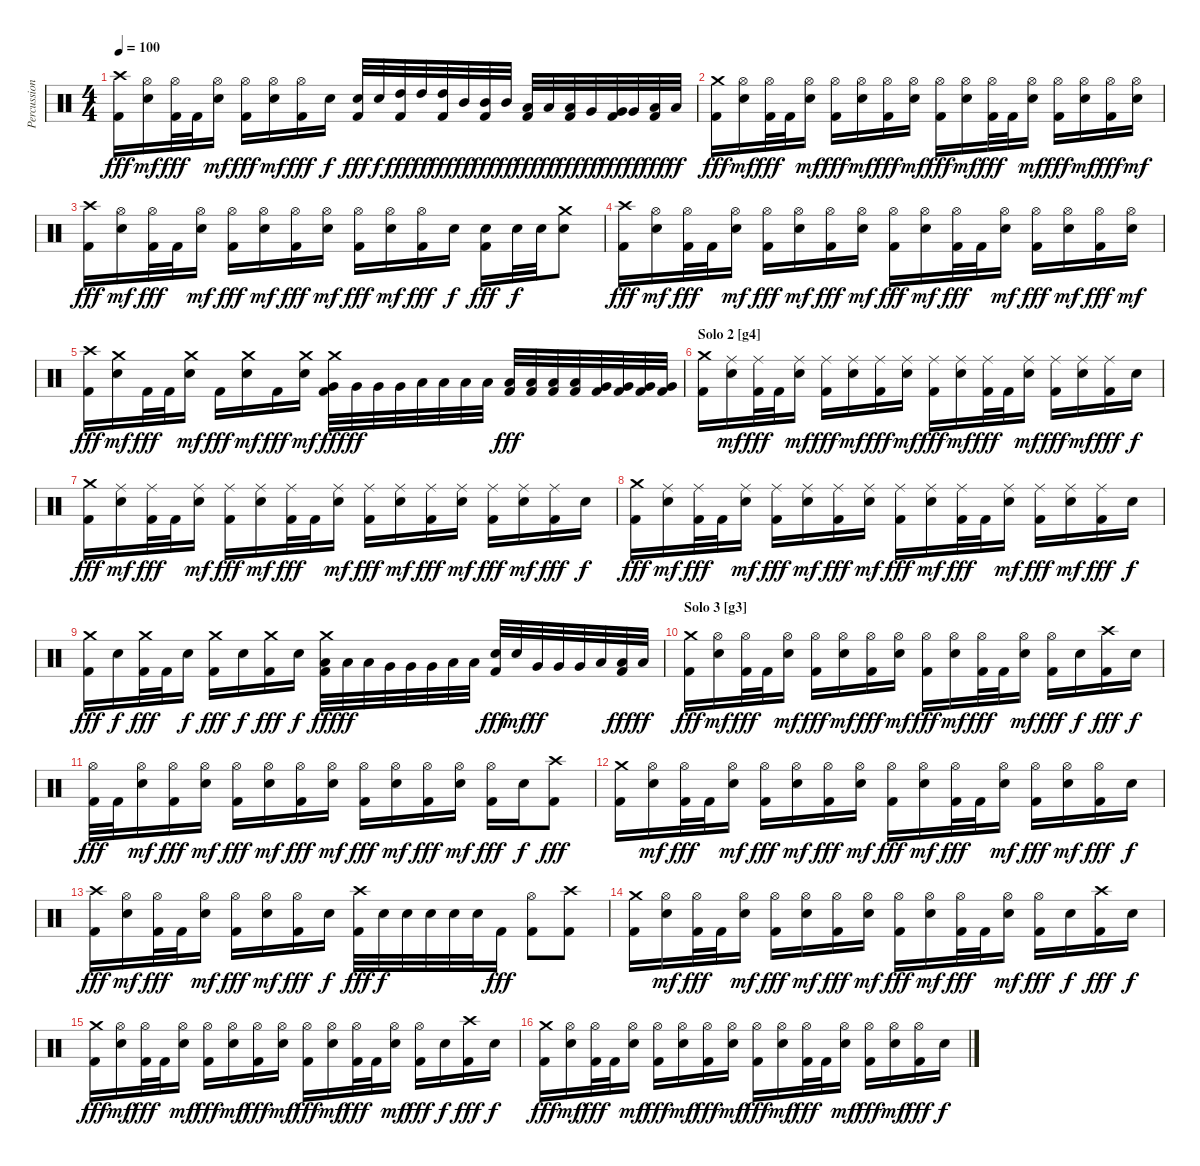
\track ("Percussion" "Percussion") {instrument percussion}
\staff {score}
\articulation defaults
\ts (4 4)
\tempo 100
\clef neutral
\ks c
("Crash high (hit)" "Kick (hit) 2").16{dy fff} ("Hi-Hat (open)" "Snare (hit) 2").16{dy mf} ("Hi-Hat (open)" "Kick (hit) 2").32{dy fff} "Kick (hit) 2".32 ("Hi-Hat (open)" "Snare (hit) 2").16{dy mf} ("Hi-Hat (open)" "Kick (hit) 2").16{dy fff} ("Hi-Hat (open)" "Snare (hit) 2").16{dy mf} ("Hi-Hat (open)" "Kick (hit) 2").16{dy fff} "Snare (hit) 2".16{dy f} ("Snare (hit) 2" "Kick (hit) 2").32{dy fff} "Snare (hit) 2".32{dy f} ("High Tom (hit)" "Kick (hit) 2").32{dy fff} "High Tom (hit)".32{dy ff} ("High Tom (hit)" "Kick (hit) 2").32{dy fff} "Mid Tom (hit)".32{dy ff} ("Mid Tom (hit)" "Kick (hit) 2").32{dy fff} "Mid Tom (hit)".32{dy ff} ("Low Tom (hit)" "Kick (hit) 2").32{dy fff} "Low Tom (hit)".32{dy ff} ("Low Tom (hit)" "Kick (hit) 2").32{dy fff} "Very Low Tom (hit)".32{dy ff} ("Very Low Tom (hit)" "Kick (hit) 2").32{dy fff} "Very Low Tom (hit)".32{dy ff} ("Low Floor Tom (hit)" "Kick (hit) 2").32{dy fff} "Low Floor Tom (hit)".32{dy ff} |
("Crash medium (hit)" "Kick (hit) 2").16{dy fff} ("Hi-Hat (open)" "Snare (hit) 2").16{dy mf} ("Hi-Hat (open)" "Kick (hit) 2").32{dy fff} "Kick (hit) 2".32 ("Hi-Hat (open)" "Snare (hit) 2").16{dy mf} ("Hi-Hat (open)" "Kick (hit) 2").16{dy fff} ("Hi-Hat (open)" "Snare (hit) 2").16{dy mf} ("Hi-Hat (open)" "Kick (hit) 2").16{dy fff} ("Hi-Hat (open)" "Snare (hit) 2").16{dy mf} ("Hi-Hat (open)" "Kick (hit) 2").16{dy fff} ("Hi-Hat (open)" "Snare (hit) 2").16{dy mf} ("Hi-Hat (open)" "Kick (hit) 2").32{dy fff} "Kick (hit) 2".32 ("Hi-Hat (open)" "Snare (hit) 2").16{dy mf} ("Hi-Hat (open)" "Kick (hit) 2").16{dy fff} ("Hi-Hat (open)" "Snare (hit) 2").16{dy mf} ("Hi-Hat (open)" "Kick (hit) 2").16{dy fff} ("Hi-Hat (open)" "Snare (hit) 2").16{dy mf} |
("Crash high (hit)" "Kick (hit) 2").16{dy fff} ("Hi-Hat (open)" "Snare (hit) 2").16{dy mf} ("Hi-Hat (open)" "Kick (hit) 2").32{dy fff} "Kick (hit) 2".32 ("Hi-Hat (open)" "Snare (hit) 2").16{dy mf} ("Hi-Hat (open)" "Kick (hit) 2").16{dy fff} ("Hi-Hat (open)" "Snare (hit) 2").16{dy mf} ("Hi-Hat (open)" "Kick (hit) 2").16{dy fff} ("Hi-Hat (open)" "Snare (hit) 2").16{dy mf} ("Hi-Hat (open)" "Kick (hit) 2").16{dy fff} ("Hi-Hat (open)" "Snare (hit) 2").16{dy mf} ("Hi-Hat (open)" "Kick (hit) 2").16{dy fff} "Snare (hit) 2".16{dy f} ("Snare (hit) 2" "Kick (hit) 2").16{dy fff} "Snare (hit) 2".32{dy f} "Snare (hit) 2".32 ("Crash medium (hit)" "Snare (hit) 2").8 |
("Crash high (hit)" "Kick (hit) 2").16{dy fff} ("Hi-Hat (open)" "Snare (hit) 2").16{dy mf} ("Hi-Hat (open)" "Kick (hit) 2").32{dy fff} "Kick (hit) 2".32 ("Hi-Hat (open)" "Snare (hit) 2").16{dy mf} ("Hi-Hat (open)" "Kick (hit) 2").16{dy fff} ("Hi-Hat (open)" "Snare (hit) 2").16{dy mf} ("Hi-Hat (open)" "Kick (hit) 2").16{dy fff} ("Hi-Hat (open)" "Snare (hit) 2").16{dy mf} ("Hi-Hat (open)" "Kick (hit) 2").16{dy fff} ("Hi-Hat (open)" "Snare (hit) 2").16{dy mf} ("Hi-Hat (open)" "Kick (hit) 2").32{dy fff} "Kick (hit) 2".32 ("Hi-Hat (open)" "Snare (hit) 2").16{dy mf} ("Hi-Hat (open)" "Kick (hit) 2").16{dy fff} ("Hi-Hat (open)" "Snare (hit) 2").16{dy mf} ("Hi-Hat (open)" "Kick (hit) 2").16{dy fff} ("Hi-Hat (open)" "Snare (hit) 2").16{dy mf} |
("Crash high (hit)" "Kick (hit) 2").16{dy fff} ("Crash medium (hit)" "Snare (hit) 2").16{dy mf} "Kick (hit) 2".32{dy fff} "Kick (hit) 2".32 ("Crash medium (hit)" "Snare (hit) 2").16{dy mf} "Kick (hit) 2".16{dy fff} ("Crash medium (hit)" "Snare (hit) 2").16{dy mf} "Kick (hit) 2".16{dy fff} ("Crash medium (hit)" "Snare (hit) 2").16{dy mf} ("Crash medium (hit)" "Very Low Tom (hit)" "Kick (hit) 2").32{dy fff} "Very Low Tom (hit)".32{dy ff} "Very Low Tom (hit)".32 "Very Low Tom (hit)".32 "Low Tom (hit)".32 "Low Tom (hit)".32 "Low Tom (hit)".32 "Low Tom (hit)".32 ("Low Floor Tom (hit)" "Kick (hit) 2").32{dy fff} ("Low Floor Tom (hit)" "Kick (hit) 2").32 ("Low Floor Tom (hit)" "Kick (hit) 2").32 ("Low Floor Tom (hit)" "Kick (hit) 2").32 ("Very Low Tom (hit)" "Kick (hit) 2").32 ("Very Low Tom (hit)" "Kick (hit) 2").32 ("Very Low Tom (hit)" "Kick (hit) 2").32 ("Very Low Tom (hit)" "Kick (hit) 2").32 |
\section ("" "Solo 2 [g4]")
("Crash medium (hit)" "Kick (hit) 2").16 ("Ride (middle)" "Snare (hit) 2").16{dy mf} ("Ride (middle)" "Kick (hit) 2").32{dy fff} "Kick (hit) 2".32 ("Ride (middle)" "Snare (hit) 2").16{dy mf} ("Ride (middle)" "Kick (hit) 2").16{dy fff} ("Ride (middle)" "Snare (hit) 2").16{dy mf} ("Ride (middle)" "Kick (hit) 2").16{dy fff} ("Ride (middle)" "Snare (hit) 2").16{dy mf} ("Ride (middle)" "Kick (hit) 2").16{dy fff} ("Ride (middle)" "Snare (hit) 2").16{dy mf} ("Ride (middle)" "Kick (hit) 2").32{dy fff} "Kick (hit) 2".32 ("Ride (middle)" "Snare (hit) 2").16{dy mf} ("Ride (middle)" "Kick (hit) 2").16{dy fff} ("Ride (middle)" "Snare (hit) 2").16{dy mf} ("Ride (middle)" "Kick (hit) 2").16{dy fff} "Snare (hit) 2".16{dy f} |
("Crash medium (hit)" "Kick (hit) 2").16{dy fff} ("Ride (middle)" "Snare (hit) 2").16{dy mf} ("Ride (middle)" "Kick (hit) 2").32{dy fff} "Kick (hit) 2".32 ("Ride (middle)" "Snare (hit) 2").16{dy mf} ("Ride (middle)" "Kick (hit) 2").16{dy fff} ("Ride (middle)" "Snare (hit) 2").16{dy mf} ("Ride (middle)" "Kick (hit) 2").32{dy fff} "Kick (hit) 2".32 ("Ride (middle)" "Snare (hit) 2").16{dy mf} ("Ride (middle)" "Kick (hit) 2").16{dy fff} ("Ride (middle)" "Snare (hit) 2").16{dy mf} ("Ride (middle)" "Kick (hit) 2").16{dy fff} ("Ride (middle)" "Snare (hit) 2").16{dy mf} ("Ride (middle)" "Kick (hit) 2").16{dy fff} ("Ride (middle)" "Snare (hit) 2").16{dy mf} ("Ride (middle)" "Kick (hit) 2").16{dy fff} "Snare (hit) 2".16{dy f} |
("Crash medium (hit)" "Kick (hit) 2").16{dy fff} ("Ride (middle)" "Snare (hit) 2").16{dy mf} ("Ride (middle)" "Kick (hit) 2").32{dy fff} "Kick (hit) 2".32 ("Ride (middle)" "Snare (hit) 2").16{dy mf} ("Ride (middle)" "Kick (hit) 2").16{dy fff} ("Ride (middle)" "Snare (hit) 2").16{dy mf} ("Ride (middle)" "Kick (hit) 2").16{dy fff} ("Ride (middle)" "Snare (hit) 2").16{dy mf} ("Ride (middle)" "Kick (hit) 2").16{dy fff} ("Ride (middle)" "Snare (hit) 2").16{dy mf} ("Ride (middle)" "Kick (hit) 2").32{dy fff} "Kick (hit) 2".32 ("Ride (middle)" "Snare (hit) 2").16{dy mf} ("Ride (middle)" "Kick (hit) 2").16{dy fff} ("Ride (middle)" "Snare (hit) 2").16{dy mf} ("Ride (middle)" "Kick (hit) 2").16{dy fff} "Snare (hit) 2".16{dy f} |
("Crash medium (hit)" "Kick (hit) 2").16{dy fff} "Snare (hit) 2".16{dy f} ("Crash medium (hit)" "Kick (hit) 2").32{dy fff} "Kick (hit) 2".32 "Snare (hit) 2".16{dy f} ("Crash medium (hit)" "Kick (hit) 2").16{dy fff} "Snare (hit) 2".16{dy f} ("Crash medium (hit)" "Kick (hit) 2").16{dy fff} "Snare (hit) 2".16{dy f} ("Crash medium (hit)" "Low Tom (hit)" "Kick (hit) 2").32{dy fff} "Low Tom (hit)".32{dy ff} "Low Tom (hit)".32 "Very Low Tom (hit)".32 "Very Low Tom (hit)".32 "Very Low Tom (hit)".32 "Low Floor Tom (hit)".32 "Low Floor Tom (hit)".32 ("Snare (hit) 2" "Kick (hit) 2").32{dy fff} "Snare (hit) 2".32{dy mf} "Very Low Tom (hit)".32{dy ff} "Very Low Tom (hit)".32 "Very Low Tom (hit)".32 "Low Floor Tom (hit)".32 ("Low Floor Tom (hit)" "Kick (hit) 2").32{dy fff} "Low Floor Tom (hit)".32{dy ff} |
\section ("" "Solo 3 [g3]")
("Crash medium (hit)" "Kick (hit) 2").16{dy fff} ("Hi-Hat (open)" "Snare (hit) 2").16{dy mf} ("Hi-Hat (open)" "Kick (hit) 2").32{dy fff} "Kick (hit) 2".32 ("Hi-Hat (open)" "Snare (hit) 2").16{dy mf} ("Hi-Hat (open)" "Kick (hit) 2").16{dy fff} ("Hi-Hat (open)" "Snare (hit) 2").16{dy mf} ("Hi-Hat (open)" "Kick (hit) 2").16{dy fff} ("Hi-Hat (open)" "Snare (hit) 2").16{dy mf} ("Hi-Hat (open)" "Kick (hit) 2").16{dy fff} ("Hi-Hat (open)" "Snare (hit) 2").16{dy mf} ("Hi-Hat (open)" "Kick (hit) 2").32{dy fff} "Kick (hit) 2".32 ("Hi-Hat (open)" "Snare (hit) 2").16{dy mf} ("Hi-Hat (open)" "Kick (hit) 2").16{dy fff} "Snare (hit) 2".16{dy f} ("Crash high (hit)" "Kick (hit) 2").16{dy fff} "Snare (hit) 2".16{dy f} |
("Hi-Hat (open)" "Kick (hit) 2").32{dy fff} "Kick (hit) 2".32 ("Hi-Hat (open)" "Snare (hit) 2").16{dy mf} ("Hi-Hat (open)" "Kick (hit) 2").16{dy fff} ("Hi-Hat (open)" "Snare (hit) 2").16{dy mf} ("Hi-Hat (open)" "Kick (hit) 2").16{dy fff} ("Hi-Hat (open)" "Snare (hit) 2").16{dy mf} ("Hi-Hat (open)" "Kick (hit) 2").16{dy fff} ("Hi-Hat (open)" "Snare (hit) 2").16{dy mf} ("Hi-Hat (open)" "Kick (hit) 2").16{dy fff} ("Hi-Hat (open)" "Snare (hit) 2").16{dy mf} ("Hi-Hat (open)" "Kick (hit) 2").16{dy fff} ("Hi-Hat (open)" "Snare (hit) 2").16{dy mf} ("Hi-Hat (open)" "Kick (hit) 2").16{dy fff} "Snare (hit) 2".16{dy f} ("Crash high (hit)" "Kick (hit) 2").8{dy fff} |
("Crash medium (hit)" "Kick (hit) 2").16 ("Hi-Hat (open)" "Snare (hit) 2").16{dy mf} ("Hi-Hat (open)" "Kick (hit) 2").32{dy fff} "Kick (hit) 2".32 ("Hi-Hat (open)" "Snare (hit) 2").16{dy mf} ("Hi-Hat (open)" "Kick (hit) 2").16{dy fff} ("Hi-Hat (open)" "Snare (hit) 2").16{dy mf} ("Hi-Hat (open)" "Kick (hit) 2").16{dy fff} ("Hi-Hat (open)" "Snare (hit) 2").16{dy mf} ("Hi-Hat (open)" "Kick (hit) 2").16{dy fff} ("Hi-Hat (open)" "Snare (hit) 2").16{dy mf} ("Hi-Hat (open)" "Kick (hit) 2").32{dy fff} "Kick (hit) 2".32 ("Hi-Hat (open)" "Snare (hit) 2").16{dy mf} ("Hi-Hat (open)" "Kick (hit) 2").16{dy fff} ("Hi-Hat (open)" "Snare (hit) 2").16{dy mf} ("Hi-Hat (open)" "Kick (hit) 2").16{dy fff} "Snare (hit) 2".16{dy f} |
("Crash high (hit)" "Kick (hit) 2").16{dy fff} ("Hi-Hat (open)" "Snare (hit) 2").16{dy mf} ("Hi-Hat (open)" "Kick (hit) 2").32{dy fff} "Kick (hit) 2".32 ("Hi-Hat (open)" "Snare (hit) 2").16{dy mf} ("Hi-Hat (open)" "Kick (hit) 2").16{dy fff} ("Hi-Hat (open)" "Snare (hit) 2").16{dy mf} ("Hi-Hat (open)" "Kick (hit) 2").16{dy fff} "Snare (hit) 2".16{dy f} ("Crash high (hit)" "Kick (hit) 2").32{dy fff} "Snare (hit) 2".32{dy f} "Snare (hit) 2".32 "Snare (hit) 2".32 "Snare (hit) 2".32 "Snare (hit) 2".32 "Kick (hit) 2".16{dy fff} ("Hi-Hat (open)" "Kick (hit) 2").8 ("Crash high (hit)" "Kick (hit) 2").8 |
("Crash medium (hit)" "Kick (hit) 2").16 ("Hi-Hat (open)" "Snare (hit) 2").16{dy mf} ("Hi-Hat (open)" "Kick (hit) 2").32{dy fff} "Kick (hit) 2".32 ("Hi-Hat (open)" "Snare (hit) 2").16{dy mf} ("Hi-Hat (open)" "Kick (hit) 2").16{dy fff} ("Hi-Hat (open)" "Snare (hit) 2").16{dy mf} ("Hi-Hat (open)" "Kick (hit) 2").16{dy fff} ("Hi-Hat (open)" "Snare (hit) 2").16{dy mf} ("Hi-Hat (open)" "Kick (hit) 2").16{dy fff} ("Hi-Hat (open)" "Snare (hit) 2").16{dy mf} ("Hi-Hat (open)" "Kick (hit) 2").32{dy fff} "Kick (hit) 2".32 ("Hi-Hat (open)" "Snare (hit) 2").16{dy mf} ("Hi-Hat (open)" "Kick (hit) 2").16{dy fff} "Snare (hit) 2".16{dy f} ("Crash high (hit)" "Kick (hit) 2").16{dy fff} "Snare (hit) 2".16{dy f} |
("Crash medium (hit)" "Kick (hit) 2").16{dy fff} ("Hi-Hat (open)" "Snare (hit) 2").16{dy mf} ("Hi-Hat (open)" "Kick (hit) 2").32{dy fff} "Kick (hit) 2".32 ("Hi-Hat (open)" "Snare (hit) 2").16{dy mf} ("Hi-Hat (open)" "Kick (hit) 2").16{dy fff} ("Hi-Hat (open)" "Snare (hit) 2").16{dy mf} ("Hi-Hat (open)" "Kick (hit) 2").16{dy fff} ("Hi-Hat (open)" "Snare (hit) 2").16{dy mf} ("Hi-Hat (open)" "Kick (hit) 2").16{dy fff} ("Hi-Hat (open)" "Snare (hit) 2").16{dy mf} ("Hi-Hat (open)" "Kick (hit) 2").32{dy fff} "Kick (hit) 2".32 ("Hi-Hat (open)" "Snare (hit) 2").16{dy mf} ("Hi-Hat (open)" "Kick (hit) 2").16{dy fff} "Snare (hit) 2".16{dy f} ("Crash high (hit)" "Kick (hit) 2").16{dy fff} "Snare (hit) 2".16{dy f} |
("Crash medium (hit)" "Kick (hit) 2").16{dy fff} ("Hi-Hat (open)" "Snare (hit) 2").16{dy mf} ("Hi-Hat (open)" "Kick (hit) 2").32{dy fff} "Kick (hit) 2".32 ("Hi-Hat (open)" "Snare (hit) 2").16{dy mf} ("Hi-Hat (open)" "Kick (hit) 2").16{dy fff} ("Hi-Hat (open)" "Snare (hit) 2").16{dy mf} ("Hi-Hat (open)" "Kick (hit) 2").16{dy fff} ("Hi-Hat (open)" "Snare (hit) 2").16{dy mf} ("Hi-Hat (open)" "Kick (hit) 2").16{dy fff} ("Hi-Hat (open)" "Snare (hit) 2").16{dy mf} ("Hi-Hat (open)" "Kick (hit) 2").32{dy fff} "Kick (hit) 2".32 ("Hi-Hat (open)" "Snare (hit) 2").16{dy mf} ("Hi-Hat (open)" "Kick (hit) 2").16{dy fff} ("Hi-Hat (open)" "Snare (hit) 2").16{dy mf} ("Hi-Hat (open)" "Kick (hit) 2").16{dy fff} "Snare (hit) 2".16{dy f}
